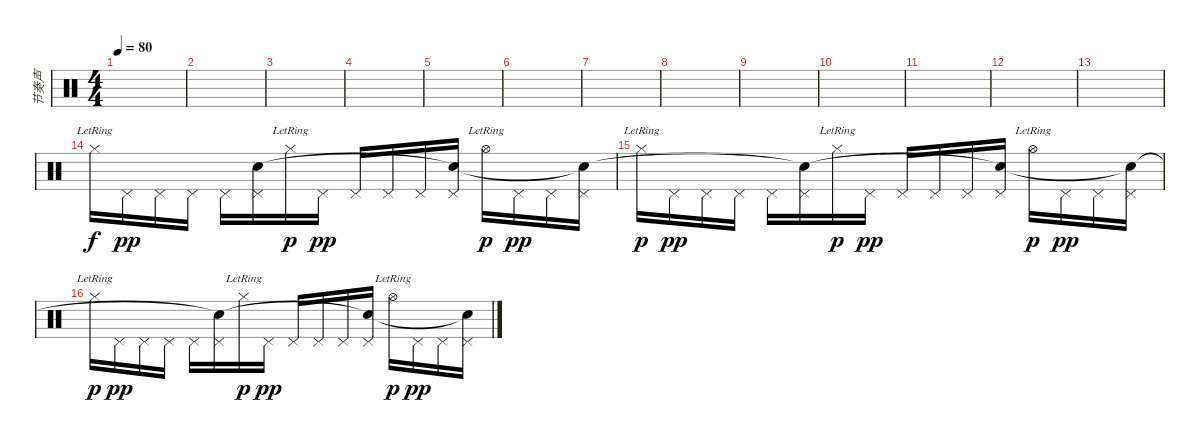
\track ("节奏声" "节奏声") {instrument percussion}
\staff {score}
\articulation defaults
\ts (4 4)
\tempo 80
\clef neutral
\ks c
|
|
|
|
|
|
|
|
|
|
|
|
|
"Hi-Hat (closed)"{lr}.16 "Pedal Hi-Hat (hit)".16{dy pp} "Pedal Hi-Hat (hit)".16 "Pedal Hi-Hat (hit)".16 "Pedal Hi-Hat (hit)".16 ("Pedal Hi-Hat (hit)" "Snare (hit)").16 "Hi-Hat (closed)"{lr}.16{dy p} "Pedal Hi-Hat (hit)".16{dy pp} "Pedal Hi-Hat (hit)".16 "Pedal Hi-Hat (hit)".16 "Pedal Hi-Hat (hit)".16 ("Pedal Hi-Hat (hit)" "Snare (hit)"{t}).16 "Hi-Hat (open)"{lr}.16{dy p} "Pedal Hi-Hat (hit)".16{dy pp} "Pedal Hi-Hat (hit)".16 ("Pedal Hi-Hat (hit)" "Snare (hit)"{t}).16 |
"Hi-Hat (closed)"{lr}.16{dy p} "Pedal Hi-Hat (hit)".16{dy pp} "Pedal Hi-Hat (hit)".16 "Pedal Hi-Hat (hit)".16 "Pedal Hi-Hat (hit)".16 ("Pedal Hi-Hat (hit)" "Snare (hit)"{t}).16 "Hi-Hat (closed)"{lr}.16{dy p} "Pedal Hi-Hat (hit)".16{dy pp} "Pedal Hi-Hat (hit)".16 "Pedal Hi-Hat (hit)".16 "Pedal Hi-Hat (hit)".16 ("Pedal Hi-Hat (hit)" "Snare (hit)"{t}).16 "Hi-Hat (open)"{lr}.16{dy p} "Pedal Hi-Hat (hit)".16{dy pp} "Pedal Hi-Hat (hit)".16 ("Pedal Hi-Hat (hit)" "Snare (hit)"{t}).16 |
"Hi-Hat (closed)"{lr}.16{dy p} "Pedal Hi-Hat (hit)".16{dy pp} "Pedal Hi-Hat (hit)".16 "Pedal Hi-Hat (hit)".16 "Pedal Hi-Hat (hit)".16 ("Pedal Hi-Hat (hit)" "Snare (hit)"{t}).16 "Hi-Hat (closed)"{lr}.16{dy p} "Pedal Hi-Hat (hit)".16{dy pp} "Pedal Hi-Hat (hit)".16 "Pedal Hi-Hat (hit)".16 "Pedal Hi-Hat (hit)".16 ("Pedal Hi-Hat (hit)" "Snare (hit)"{t}).16 "Hi-Hat (open)"{lr}.16{dy p} "Pedal Hi-Hat (hit)".16{dy pp} "Pedal Hi-Hat (hit)".16 ("Pedal Hi-Hat (hit)" "Snare (hit)"{t}).16
